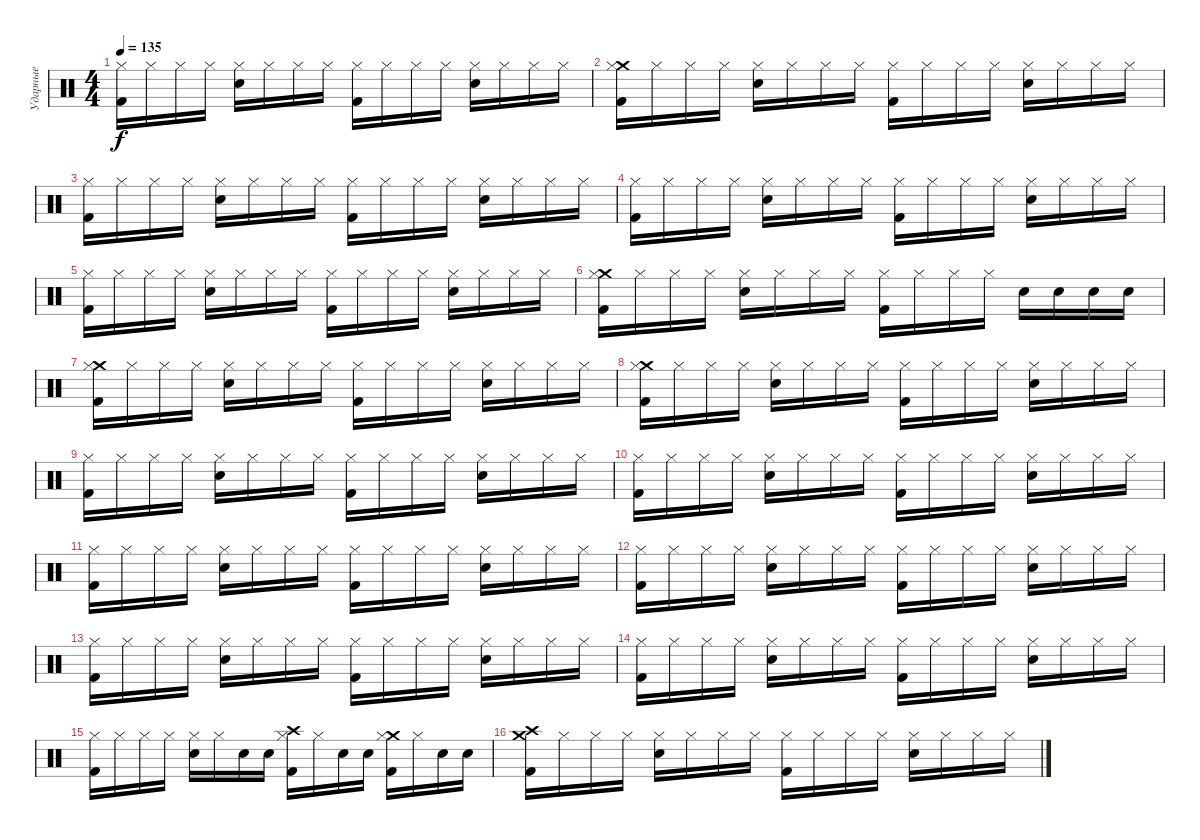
\track ("Ударные" "Ударные") {instrument percussion}
\staff {score}
\articulation defaults
\ts (4 4)
\tempo 135
\clef neutral
\ks c
("Hi-Hat (closed)" "Kick (hit) 2").16{dy f} "Hi-Hat (closed)".16 "Hi-Hat (closed)".16 "Hi-Hat (closed)".16 ("Hi-Hat (closed)" "Snare (hit) 2").16 "Hi-Hat (closed)".16 "Hi-Hat (closed)".16 "Hi-Hat (closed)".16 ("Hi-Hat (closed)" "Kick (hit) 2").16 "Hi-Hat (closed)".16 "Hi-Hat (closed)".16 "Hi-Hat (closed)".16 ("Hi-Hat (closed)" "Snare (hit) 2").16 "Hi-Hat (closed)".16 "Hi-Hat (closed)".16 "Hi-Hat (closed)".16 |
("Crash medium (hit)" "Hi-Hat (closed)" "Kick (hit) 2").16 "Hi-Hat (closed)".16 "Hi-Hat (closed)".16 "Hi-Hat (closed)".16 ("Hi-Hat (closed)" "Snare (hit) 2").16 "Hi-Hat (closed)".16 "Hi-Hat (closed)".16 "Hi-Hat (closed)".16 ("Hi-Hat (closed)" "Kick (hit) 2").16 "Hi-Hat (closed)".16 "Hi-Hat (closed)".16 "Hi-Hat (closed)".16 ("Hi-Hat (closed)" "Snare (hit) 2").16 "Hi-Hat (closed)".16 "Hi-Hat (closed)".16 "Hi-Hat (closed)".16 |
("Hi-Hat (closed)" "Kick (hit) 2").16 "Hi-Hat (closed)".16 "Hi-Hat (closed)".16 "Hi-Hat (closed)".16 ("Hi-Hat (closed)" "Snare (hit) 2").16 "Hi-Hat (closed)".16 "Hi-Hat (closed)".16 "Hi-Hat (closed)".16 ("Hi-Hat (closed)" "Kick (hit) 2").16 "Hi-Hat (closed)".16 "Hi-Hat (closed)".16 "Hi-Hat (closed)".16 ("Hi-Hat (closed)" "Snare (hit) 2").16 "Hi-Hat (closed)".16 "Hi-Hat (closed)".16 "Hi-Hat (closed)".16 |
("Hi-Hat (closed)" "Kick (hit) 2").16 "Hi-Hat (closed)".16 "Hi-Hat (closed)".16 "Hi-Hat (closed)".16 ("Hi-Hat (closed)" "Snare (hit) 2").16 "Hi-Hat (closed)".16 "Hi-Hat (closed)".16 "Hi-Hat (closed)".16 ("Hi-Hat (closed)" "Kick (hit) 2").16 "Hi-Hat (closed)".16 "Hi-Hat (closed)".16 "Hi-Hat (closed)".16 ("Hi-Hat (closed)" "Snare (hit) 2").16 "Hi-Hat (closed)".16 "Hi-Hat (closed)".16 "Hi-Hat (closed)".16 |
("Hi-Hat (closed)" "Kick (hit) 2").16 "Hi-Hat (closed)".16 "Hi-Hat (closed)".16 "Hi-Hat (closed)".16 ("Hi-Hat (closed)" "Snare (hit) 2").16 "Hi-Hat (closed)".16 "Hi-Hat (closed)".16 "Hi-Hat (closed)".16 ("Hi-Hat (closed)" "Kick (hit) 2").16 "Hi-Hat (closed)".16 "Hi-Hat (closed)".16 "Hi-Hat (closed)".16 ("Hi-Hat (closed)" "Snare (hit) 2").16 "Hi-Hat (closed)".16 "Hi-Hat (closed)".16 "Hi-Hat (closed)".16 |
("Crash medium (hit)" "Hi-Hat (closed)" "Kick (hit) 2").16 "Hi-Hat (closed)".16 "Hi-Hat (closed)".16 "Hi-Hat (closed)".16 ("Hi-Hat (closed)" "Snare (hit) 2").16 "Hi-Hat (closed)".16 "Hi-Hat (closed)".16 "Hi-Hat (closed)".16 ("Hi-Hat (closed)" "Kick (hit) 2").16 "Hi-Hat (closed)".16 "Hi-Hat (closed)".16 "Hi-Hat (closed)".16 "Snare (hit) 2".16 "Snare (hit) 2".16 "Snare (hit) 2".16 "Snare (hit) 2".16 |
("Crash medium (hit)" "Hi-Hat (closed)" "Kick (hit) 2").16 "Hi-Hat (closed)".16 "Hi-Hat (closed)".16 "Hi-Hat (closed)".16 ("Hi-Hat (closed)" "Snare (hit) 2").16 "Hi-Hat (closed)".16 "Hi-Hat (closed)".16 "Hi-Hat (closed)".16 ("Hi-Hat (closed)" "Kick (hit) 2").16 "Hi-Hat (closed)".16 "Hi-Hat (closed)".16 "Hi-Hat (closed)".16 ("Hi-Hat (closed)" "Snare (hit) 2").16 "Hi-Hat (closed)".16 "Hi-Hat (closed)".16 "Hi-Hat (closed)".16 |
("Crash medium (hit)" "Hi-Hat (closed)" "Kick (hit) 2").16 "Hi-Hat (closed)".16 "Hi-Hat (closed)".16 "Hi-Hat (closed)".16 ("Hi-Hat (closed)" "Snare (hit) 2").16 "Hi-Hat (closed)".16 "Hi-Hat (closed)".16 "Hi-Hat (closed)".16 ("Hi-Hat (closed)" "Kick (hit) 2").16 "Hi-Hat (closed)".16 "Hi-Hat (closed)".16 "Hi-Hat (closed)".16 ("Hi-Hat (closed)" "Snare (hit) 2").16 "Hi-Hat (closed)".16 "Hi-Hat (closed)".16 "Hi-Hat (closed)".16 |
("Hi-Hat (closed)" "Kick (hit) 2").16 "Hi-Hat (closed)".16 "Hi-Hat (closed)".16 "Hi-Hat (closed)".16 ("Hi-Hat (closed)" "Snare (hit) 2").16 "Hi-Hat (closed)".16 "Hi-Hat (closed)".16 "Hi-Hat (closed)".16 ("Hi-Hat (closed)" "Kick (hit) 2").16 "Hi-Hat (closed)".16 "Hi-Hat (closed)".16 "Hi-Hat (closed)".16 ("Hi-Hat (closed)" "Snare (hit) 2").16 "Hi-Hat (closed)".16 "Hi-Hat (closed)".16 "Hi-Hat (closed)".16 |
("Hi-Hat (closed)" "Kick (hit) 2").16 "Hi-Hat (closed)".16 "Hi-Hat (closed)".16 "Hi-Hat (closed)".16 ("Hi-Hat (closed)" "Snare (hit) 2").16 "Hi-Hat (closed)".16 "Hi-Hat (closed)".16 "Hi-Hat (closed)".16 ("Hi-Hat (closed)" "Kick (hit) 2").16 "Hi-Hat (closed)".16 "Hi-Hat (closed)".16 "Hi-Hat (closed)".16 ("Hi-Hat (closed)" "Snare (hit) 2").16 "Hi-Hat (closed)".16 "Hi-Hat (closed)".16 "Hi-Hat (closed)".16 |
("Hi-Hat (closed)" "Kick (hit) 2").16 "Hi-Hat (closed)".16 "Hi-Hat (closed)".16 "Hi-Hat (closed)".16 ("Hi-Hat (closed)" "Snare (hit) 2").16 "Hi-Hat (closed)".16 "Hi-Hat (closed)".16 "Hi-Hat (closed)".16 ("Hi-Hat (closed)" "Kick (hit) 2").16 "Hi-Hat (closed)".16 "Hi-Hat (closed)".16 "Hi-Hat (closed)".16 ("Hi-Hat (closed)" "Snare (hit) 2").16 "Hi-Hat (closed)".16 "Hi-Hat (closed)".16 "Hi-Hat (closed)".16 |
("Hi-Hat (closed)" "Kick (hit) 2").16 "Hi-Hat (closed)".16 "Hi-Hat (closed)".16 "Hi-Hat (closed)".16 ("Hi-Hat (closed)" "Snare (hit) 2").16 "Hi-Hat (closed)".16 "Hi-Hat (closed)".16 "Hi-Hat (closed)".16 ("Hi-Hat (closed)" "Kick (hit) 2").16 "Hi-Hat (closed)".16 "Hi-Hat (closed)".16 "Hi-Hat (closed)".16 ("Hi-Hat (closed)" "Snare (hit) 2").16 "Hi-Hat (closed)".16 "Hi-Hat (closed)".16 "Hi-Hat (closed)".16 |
("Hi-Hat (closed)" "Kick (hit) 2").16 "Hi-Hat (closed)".16 "Hi-Hat (closed)".16 "Hi-Hat (closed)".16 ("Hi-Hat (closed)" "Snare (hit) 2").16 "Hi-Hat (closed)".16 "Hi-Hat (closed)".16 "Hi-Hat (closed)".16 ("Hi-Hat (closed)" "Kick (hit) 2").16 "Hi-Hat (closed)".16 "Hi-Hat (closed)".16 "Hi-Hat (closed)".16 ("Hi-Hat (closed)" "Snare (hit) 2").16 "Hi-Hat (closed)".16 "Hi-Hat (closed)".16 "Hi-Hat (closed)".16 |
("Hi-Hat (closed)" "Kick (hit) 2").16 "Hi-Hat (closed)".16 "Hi-Hat (closed)".16 "Hi-Hat (closed)".16 ("Hi-Hat (closed)" "Snare (hit) 2").16 "Hi-Hat (closed)".16 "Hi-Hat (closed)".16 "Hi-Hat (closed)".16 ("Hi-Hat (closed)" "Kick (hit) 2").16 "Hi-Hat (closed)".16 "Hi-Hat (closed)".16 "Hi-Hat (closed)".16 ("Hi-Hat (closed)" "Snare (hit) 2").16 "Hi-Hat (closed)".16 "Hi-Hat (closed)".16 "Hi-Hat (closed)".16 |
("Hi-Hat (closed)" "Kick (hit) 2").16 "Hi-Hat (closed)".16 "Hi-Hat (closed)".16 "Hi-Hat (closed)".16 ("Hi-Hat (closed)" "Snare (hit) 2").16 "Hi-Hat (closed)".16 "Snare (hit) 2".16 "Snare (hit) 2".16 ("Crash high (hit)" "Hi-Hat (closed)" "Kick (hit) 2").16 "Hi-Hat (closed)".16 "Snare (hit) 2".16 "Snare (hit) 2".16 ("Crash medium (hit)" "Hi-Hat (closed)" "Kick (hit) 2").16 "Hi-Hat (closed)".16 "Snare (hit) 2".16 "Snare (hit) 2".16 |
("Crash medium (hit)" "Crash high (hit)" "Kick (hit) 2").16 "Hi-Hat (closed)".16 "Hi-Hat (closed)".16 "Hi-Hat (closed)".16 ("Hi-Hat (closed)" "Snare (hit) 2").16 "Hi-Hat (closed)".16 "Hi-Hat (closed)".16 "Hi-Hat (closed)".16 ("Hi-Hat (closed)" "Kick (hit) 2").16 "Hi-Hat (closed)".16 "Hi-Hat (closed)".16 "Hi-Hat (closed)".16 ("Hi-Hat (closed)" "Snare (hit) 2").16 "Hi-Hat (closed)".16 "Hi-Hat (closed)".16 "Hi-Hat (closed)".16
